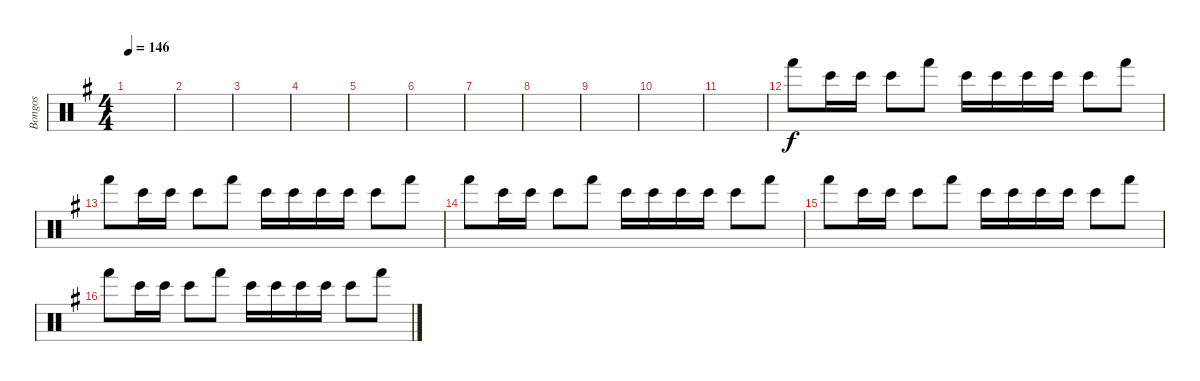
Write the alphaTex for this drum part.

\track ("Bongos" "Bongos") {instrument percussion}
\staff {score}
\articulation defaults
\ts (4 4)
\tempo 146
\clef neutral
\ks g
|
|
|
|
|
|
|
|
|
|
|
"Hand (hit)".8 "Bongo High (hit)".16 "Bongo High (hit)".16 "Bongo High (hit)".8 "Hand (hit)".8 "Bongo High (hit)".16 "Bongo High (hit)".16 "Bongo High (hit)".16 "Bongo High (hit)".16 "Bongo High (hit)".8 "Hand (hit)".8 |
"Hand (hit)".8 "Bongo High (hit)".16 "Bongo High (hit)".16 "Bongo High (hit)".8 "Hand (hit)".8 "Bongo High (hit)".16 "Bongo High (hit)".16 "Bongo High (hit)".16 "Bongo High (hit)".16 "Bongo High (hit)".8 "Hand (hit)".8 |
"Hand (hit)".8 "Bongo High (hit)".16 "Bongo High (hit)".16 "Bongo High (hit)".8 "Hand (hit)".8 "Bongo High (hit)".16 "Bongo High (hit)".16 "Bongo High (hit)".16 "Bongo High (hit)".16 "Bongo High (hit)".8 "Hand (hit)".8 |
"Hand (hit)".8 "Bongo High (hit)".16 "Bongo High (hit)".16 "Bongo High (hit)".8 "Hand (hit)".8 "Bongo High (hit)".16 "Bongo High (hit)".16 "Bongo High (hit)".16 "Bongo High (hit)".16 "Bongo High (hit)".8 "Hand (hit)".8 |
"Hand (hit)".8 "Bongo High (hit)".16 "Bongo High (hit)".16 "Bongo High (hit)".8 "Hand (hit)".8 "Bongo High (hit)".16 "Bongo High (hit)".16 "Bongo High (hit)".16 "Bongo High (hit)".16 "Bongo High (hit)".8 "Hand (hit)".8
